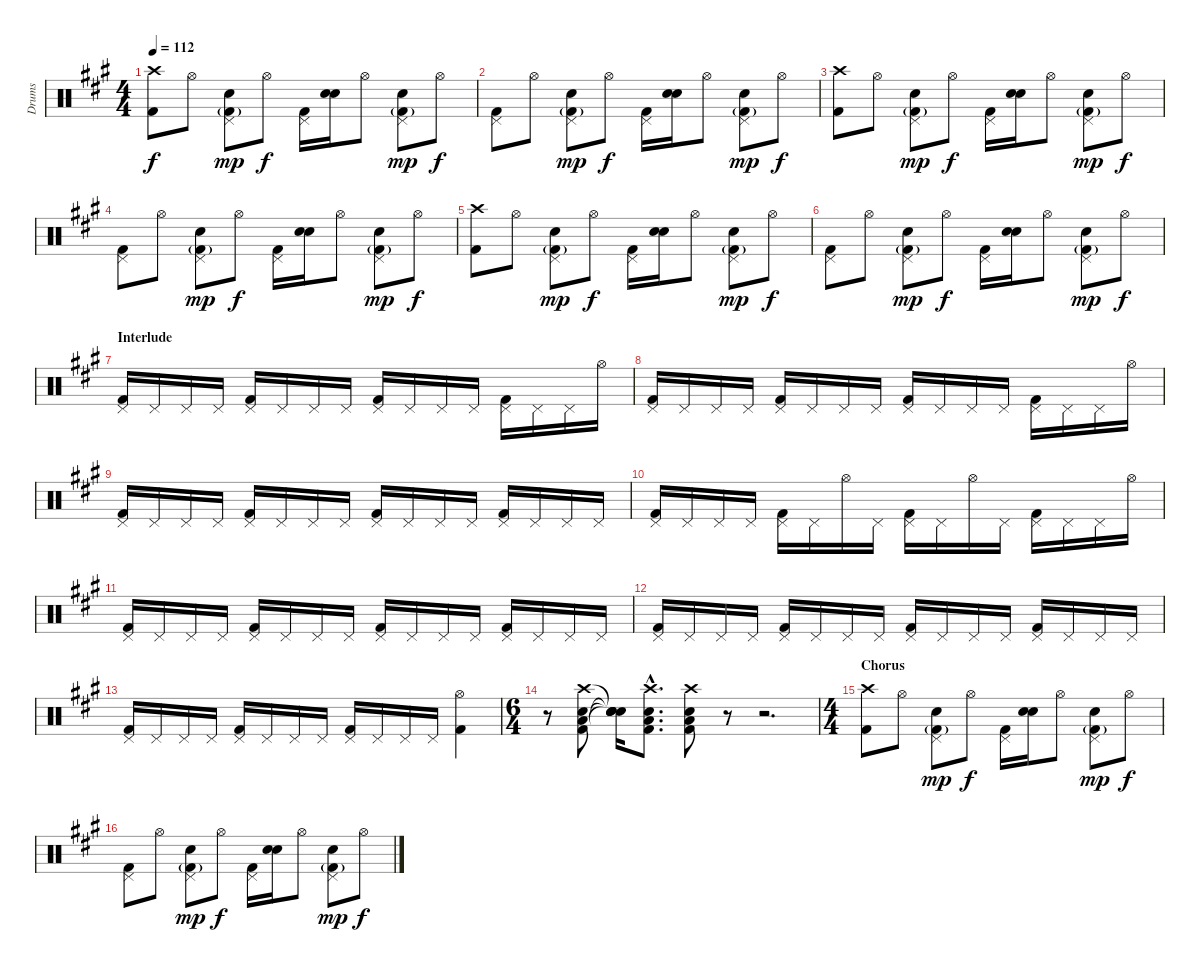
\track ("Drums" "Drums") {instrument percussion}
\staff {score}
\articulation defaults
\ts (4 4)
\tempo 112
\clef neutral
\ks a
("Crash high (hit)" "Kick (hit) 2").8{dy f} "Hi-Hat (open)".8 ("Pedal Hi-Hat (hit)" "Electric Snare (hit)" "Kick (hit) 2"{g}).8{dy mp} "Hi-Hat (open)".8{dy f} ("Pedal Hi-Hat (hit)" "Kick (hit) 2").16 ("Snare (hit)"{x} "Electric Snare (hit)").16 "Hi-Hat (open)".8 ("Pedal Hi-Hat (hit)" "Electric Snare (hit)" "Kick (hit) 2"{g}).8{dy mp} "Hi-Hat (open)".8{dy f} |
("Pedal Hi-Hat (hit)" "Kick (hit) 2").8 "Hi-Hat (open)".8 ("Pedal Hi-Hat (hit)" "Electric Snare (hit)" "Kick (hit) 2"{g}).8{dy mp} "Hi-Hat (open)".8{dy f} ("Pedal Hi-Hat (hit)" "Kick (hit) 2").16 ("Snare (hit)"{x} "Electric Snare (hit)").16 "Hi-Hat (open)".8 ("Pedal Hi-Hat (hit)" "Electric Snare (hit)" "Kick (hit) 2"{g}).8{dy mp} "Hi-Hat (open)".8{dy f} |
("Crash high (hit)" "Kick (hit) 2").8 "Hi-Hat (open)".8 ("Pedal Hi-Hat (hit)" "Electric Snare (hit)" "Kick (hit) 2"{g}).8{dy mp} "Hi-Hat (open)".8{dy f} ("Pedal Hi-Hat (hit)" "Kick (hit) 2").16 ("Snare (hit)"{x} "Electric Snare (hit)").16 "Hi-Hat (open)".8 ("Pedal Hi-Hat (hit)" "Electric Snare (hit)" "Kick (hit) 2"{g}).8{dy mp} "Hi-Hat (open)".8{dy f} |
("Pedal Hi-Hat (hit)" "Kick (hit) 2").8 "Hi-Hat (open)".8 ("Pedal Hi-Hat (hit)" "Electric Snare (hit)" "Kick (hit) 2"{g}).8{dy mp} "Hi-Hat (open)".8{dy f} ("Pedal Hi-Hat (hit)" "Kick (hit) 2").16 ("Snare (hit)"{x} "Electric Snare (hit)").16 "Hi-Hat (open)".8 ("Pedal Hi-Hat (hit)" "Electric Snare (hit)" "Kick (hit) 2"{g}).8{dy mp} "Hi-Hat (open)".8{dy f} |
("Crash high (hit)" "Kick (hit) 2").8 "Hi-Hat (open)".8 ("Pedal Hi-Hat (hit)" "Electric Snare (hit)" "Kick (hit) 2"{g}).8{dy mp} "Hi-Hat (open)".8{dy f} ("Pedal Hi-Hat (hit)" "Kick (hit) 2").16 ("Snare (hit)"{x} "Electric Snare (hit)").16 "Hi-Hat (open)".8 ("Pedal Hi-Hat (hit)" "Electric Snare (hit)" "Kick (hit) 2"{g}).8{dy mp} "Hi-Hat (open)".8{dy f} |
("Pedal Hi-Hat (hit)" "Kick (hit) 2").8 "Hi-Hat (open)".8 ("Pedal Hi-Hat (hit)" "Electric Snare (hit)" "Kick (hit) 2"{g}).8{dy mp} "Hi-Hat (open)".8{dy f} ("Pedal Hi-Hat (hit)" "Kick (hit) 2").16 ("Snare (hit)"{x} "Electric Snare (hit)").16 "Hi-Hat (open)".8 ("Pedal Hi-Hat (hit)" "Electric Snare (hit)" "Kick (hit) 2"{g}).8{dy mp} "Hi-Hat (open)".8{dy f} |
\section ("" "Interlude")
("Pedal Hi-Hat (hit)" "Kick (hit) 2").16 "Pedal Hi-Hat (hit)".16 "Pedal Hi-Hat (hit)".16 "Pedal Hi-Hat (hit)".16 ("Pedal Hi-Hat (hit)" "Kick (hit) 2").16 "Pedal Hi-Hat (hit)".16 "Pedal Hi-Hat (hit)".16 "Pedal Hi-Hat (hit)".16 ("Pedal Hi-Hat (hit)" "Kick (hit) 2").16 "Pedal Hi-Hat (hit)".16 "Pedal Hi-Hat (hit)".16 "Pedal Hi-Hat (hit)".16 ("Pedal Hi-Hat (hit)" "Kick (hit) 2").16 "Pedal Hi-Hat (hit)".16 "Pedal Hi-Hat (hit)".16 "Hi-Hat (open)".16 |
("Pedal Hi-Hat (hit)" "Kick (hit) 2").16 "Pedal Hi-Hat (hit)".16 "Pedal Hi-Hat (hit)".16 "Pedal Hi-Hat (hit)".16 ("Pedal Hi-Hat (hit)" "Kick (hit) 2").16 "Pedal Hi-Hat (hit)".16 "Pedal Hi-Hat (hit)".16 "Pedal Hi-Hat (hit)".16 ("Pedal Hi-Hat (hit)" "Kick (hit) 2").16 "Pedal Hi-Hat (hit)".16 "Pedal Hi-Hat (hit)".16 "Pedal Hi-Hat (hit)".16 ("Pedal Hi-Hat (hit)" "Kick (hit) 2").16 "Pedal Hi-Hat (hit)".16 "Pedal Hi-Hat (hit)".16 "Hi-Hat (open)".16 |
("Pedal Hi-Hat (hit)" "Kick (hit) 2").16 "Pedal Hi-Hat (hit)".16 "Pedal Hi-Hat (hit)".16 "Pedal Hi-Hat (hit)".16 ("Pedal Hi-Hat (hit)" "Kick (hit) 2").16 "Pedal Hi-Hat (hit)".16 "Pedal Hi-Hat (hit)".16 "Pedal Hi-Hat (hit)".16 ("Pedal Hi-Hat (hit)" "Kick (hit) 2").16 "Pedal Hi-Hat (hit)".16 "Pedal Hi-Hat (hit)".16 "Pedal Hi-Hat (hit)".16 ("Pedal Hi-Hat (hit)" "Kick (hit) 2").16 "Pedal Hi-Hat (hit)".16 "Pedal Hi-Hat (hit)".16 "Pedal Hi-Hat (hit)".16 |
("Pedal Hi-Hat (hit)" "Kick (hit) 2").16 "Pedal Hi-Hat (hit)".16 "Pedal Hi-Hat (hit)".16 "Pedal Hi-Hat (hit)".16 ("Pedal Hi-Hat (hit)" "Kick (hit) 2").16 "Pedal Hi-Hat (hit)".16 "Hi-Hat (open)".16 "Pedal Hi-Hat (hit)".16 ("Pedal Hi-Hat (hit)" "Kick (hit) 2").16 "Pedal Hi-Hat (hit)".16 "Hi-Hat (open)".16 "Pedal Hi-Hat (hit)".16 ("Pedal Hi-Hat (hit)" "Kick (hit) 2").16 "Pedal Hi-Hat (hit)".16 "Pedal Hi-Hat (hit)".16 "Hi-Hat (open)".16 |
("Pedal Hi-Hat (hit)" "Kick (hit) 2").16 "Pedal Hi-Hat (hit)".16 "Pedal Hi-Hat (hit)".16 "Pedal Hi-Hat (hit)".16 ("Pedal Hi-Hat (hit)" "Kick (hit) 2").16 "Pedal Hi-Hat (hit)".16 "Pedal Hi-Hat (hit)".16 "Pedal Hi-Hat (hit)".16 ("Pedal Hi-Hat (hit)" "Kick (hit) 2").16 "Pedal Hi-Hat (hit)".16 "Pedal Hi-Hat (hit)".16 "Pedal Hi-Hat (hit)".16 ("Pedal Hi-Hat (hit)" "Kick (hit) 2").16 "Pedal Hi-Hat (hit)".16 "Pedal Hi-Hat (hit)".16 "Pedal Hi-Hat (hit)".16 |
("Pedal Hi-Hat (hit)" "Kick (hit) 2").16 "Pedal Hi-Hat (hit)".16 "Pedal Hi-Hat (hit)".16 "Pedal Hi-Hat (hit)".16 ("Pedal Hi-Hat (hit)" "Kick (hit) 2").16 "Pedal Hi-Hat (hit)".16 "Pedal Hi-Hat (hit)".16 "Pedal Hi-Hat (hit)".16 ("Pedal Hi-Hat (hit)" "Kick (hit) 2").16 "Pedal Hi-Hat (hit)".16 "Pedal Hi-Hat (hit)".16 "Pedal Hi-Hat (hit)".16 ("Pedal Hi-Hat (hit)" "Kick (hit) 2").16 "Pedal Hi-Hat (hit)".16 "Pedal Hi-Hat (hit)".16 "Pedal Hi-Hat (hit)".16 |
("Pedal Hi-Hat (hit)" "Kick (hit) 2").16 "Pedal Hi-Hat (hit)".16 "Pedal Hi-Hat (hit)".16 "Pedal Hi-Hat (hit)".16 ("Pedal Hi-Hat (hit)" "Kick (hit) 2").16 "Pedal Hi-Hat (hit)".16 "Pedal Hi-Hat (hit)".16 "Pedal Hi-Hat (hit)".16 ("Pedal Hi-Hat (hit)" "Kick (hit) 2").16 "Pedal Hi-Hat (hit)".16 "Pedal Hi-Hat (hit)".16 "Pedal Hi-Hat (hit)".16 ("Hi-Hat (open)" "Kick (hit) 2").4 |
\ts (6 4)
r.8 ("Crash high (hit)" "Low Floor Tom (hit)" "Electric Snare (hit)" "Kick (hit) 2").8{bd 240} ("Snare (hit)"{t} "Snare (hit)"{t} "Snare (hit)"{t} "Snare (hit)"{t}).16 ("Crash high (hit)"{hac} "Low Floor Tom (hit)"{hac} "Electric Snare (hit)"{hac} "Kick (hit) 2"{hac}).8{d bd 240} ("Crash high (hit)" "Low Floor Tom (hit)" "Electric Snare (hit)" "Kick (hit) 2").8{bd 240} r.8 r.2{d} |
\ts (4 4)
\section ("" "Chorus")
("Crash high (hit)" "Kick (hit) 2").8 "Hi-Hat (open)".8 ("Pedal Hi-Hat (hit)" "Electric Snare (hit)" "Kick (hit) 2"{g}).8{dy mp} "Hi-Hat (open)".8{dy f} ("Pedal Hi-Hat (hit)" "Kick (hit) 2").16 ("Snare (hit)"{x} "Electric Snare (hit)").16 "Hi-Hat (open)".8 ("Pedal Hi-Hat (hit)" "Electric Snare (hit)" "Kick (hit) 2"{g}).8{dy mp} "Hi-Hat (open)".8{dy f} |
("Pedal Hi-Hat (hit)" "Kick (hit) 2").8 "Hi-Hat (open)".8 ("Pedal Hi-Hat (hit)" "Electric Snare (hit)" "Kick (hit) 2"{g}).8{dy mp} "Hi-Hat (open)".8{dy f} ("Pedal Hi-Hat (hit)" "Kick (hit) 2").16 ("Snare (hit)"{x} "Electric Snare (hit)").16 "Hi-Hat (open)".8 ("Pedal Hi-Hat (hit)" "Electric Snare (hit)" "Kick (hit) 2"{g}).8{dy mp} "Hi-Hat (open)".8{dy f}
